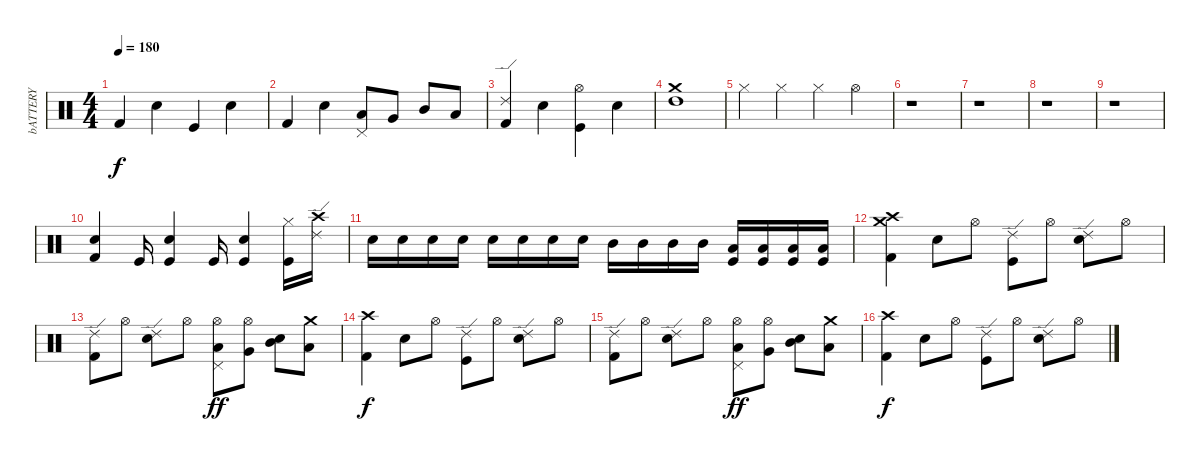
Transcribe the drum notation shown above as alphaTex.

\track ("bATTERY" "bATTERY") {instrument percussion}
\staff {score}
\articulation defaults
\ts (4 4)
\tempo 180
\clef neutral
\ks c "Kick (hit) 2".4{dy f} "Electric Snare (hit)".4 "Kick (hit)".4 "Electric Snare (hit)".4
|
"Kick (hit) 2".4 "Electric Snare (hit)".4 ("Pedal Hi-Hat (hit)" "Low Tom (hit)").8 "Very Low Tom (hit)".8 "Mid Tom (hit)".8 "Low Floor Tom (hit)".8 |
("Kick (hit) 2" "Ride (edge) 2").4 "Electric Snare (hit)".4 ("Kick (hit)" "Hi-Hat (open)").4 "Electric Snare (hit)".4 |
("Crash medium (hit)" "High Tom (hit)").1 |
"Hi-Hat (closed)".4 "Hi-Hat (closed)".4 "Hi-Hat (closed)".4 "Hi-Hat (open)".4 |
r.1 |
r.1 |
r.1 |
r.1 |
("Snare (hit) 2" "Kick (hit) 2").4 "Kick (hit)".16 ("Electric Snare (hit)" "Kick (hit)").4 "Kick (hit)".16 ("Electric Snare (hit)" "Kick (hit)").4 ("Kick (hit)" "Hi-Hat (closed)").16 ("Ride (edge) 2" "Crash high (hit)").16 |
"Electric Snare (hit)".16 "Electric Snare (hit)".16 "Electric Snare (hit)".16 "Electric Snare (hit)".16 "Electric Snare (hit)".16 "Electric Snare (hit)".16 "Electric Snare (hit)".16 "Electric Snare (hit)".16 "Mid Tom (hit)".16 "Mid Tom (hit)".16 "Mid Tom (hit)".16 "Mid Tom (hit)".16 ("Low Tom (hit)" "Kick (hit)").16 ("Low Tom (hit)" "Kick (hit)").16 ("Low Tom (hit)" "Kick (hit)").16 ("Low Tom (hit)" "Kick (hit)").16 |
("Kick (hit) 2" "Crash high (hit)" "Crash medium (hit)").4 "Electric Snare (hit)".8 "Hi-Hat (open)".8 ("Kick (hit)" "Ride (edge) 2").8 "Hi-Hat (open)".8 ("Electric Snare (hit)" "Ride (edge) 2").8 "Hi-Hat (open)".8 |
("Kick (hit) 2" "Ride (edge) 2").8 "Hi-Hat (open)".8 ("Electric Snare (hit)" "Ride (edge) 2").8 "Hi-Hat (open)".8 ("Pedal Hi-Hat (hit)" "Low Tom (hit)" "Hi-Hat (open)").8{dy ff} ("Very Low Tom (hit)" "Hi-Hat (open)").8 ("Mid Tom (hit)" "Electric Snare (hit)").8 ("Low Floor Tom (hit)" "Crash medium (hit)").8 |
("Kick (hit) 2" "Crash high (hit)").4{dy f} "Electric Snare (hit)".8 "Hi-Hat (open)".8 ("Kick (hit)" "Ride (edge) 2").8 "Hi-Hat (open)".8 ("Electric Snare (hit)" "Ride (edge) 2").8 "Hi-Hat (open)".8 |
("Kick (hit) 2" "Ride (edge) 2").8 "Hi-Hat (open)".8 ("Electric Snare (hit)" "Ride (edge) 2").8 "Hi-Hat (open)".8 ("Pedal Hi-Hat (hit)" "Low Tom (hit)" "Hi-Hat (open)").8{dy ff} ("Very Low Tom (hit)" "Hi-Hat (open)").8 ("Mid Tom (hit)" "Electric Snare (hit)").8 ("Low Floor Tom (hit)" "Crash medium (hit)").8 |
("Kick (hit) 2" "Crash high (hit)").4{dy f} "Electric Snare (hit)".8 "Hi-Hat (open)".8 ("Kick (hit)" "Ride (edge) 2").8 "Hi-Hat (open)".8 ("Electric Snare (hit)" "Ride (edge) 2").8 "Hi-Hat (open)".8
